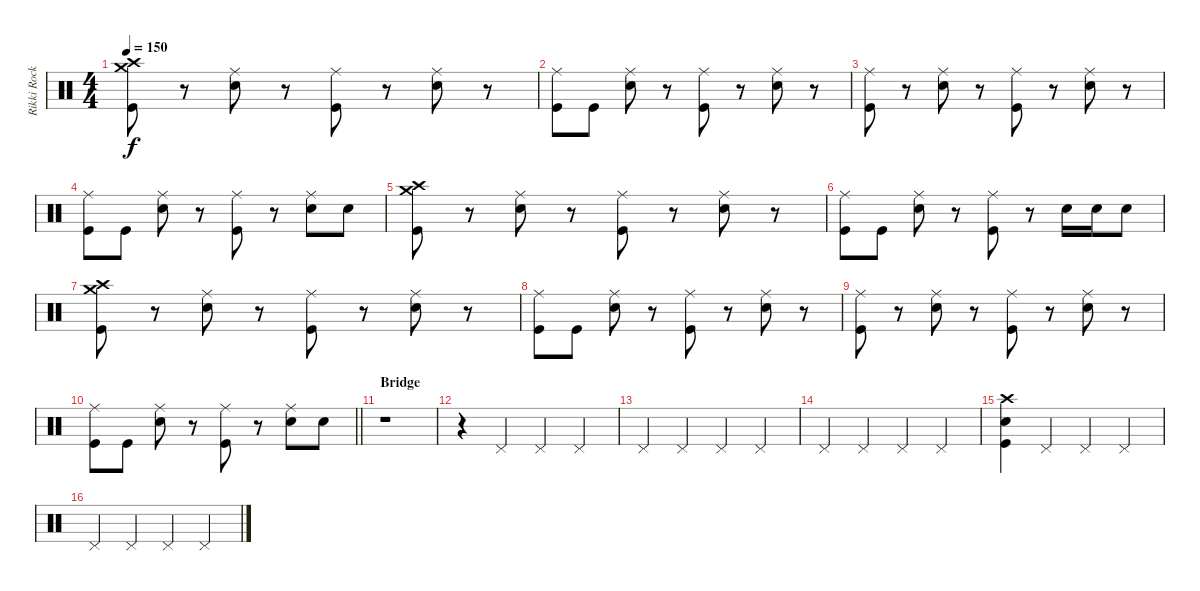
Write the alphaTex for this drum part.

\track ("Rikki Rocket" "Rikki Rock") {instrument percussion}
\staff {score}
\articulation defaults
\ts (4 4)
\tempo 150
\clef neutral
\ks c
("Crash medium (hit)" "Crash high (hit)" "Kick (hit)").8{dy f} r.8 ("Ride (middle)" "Electric Snare (hit)").8 r.8 ("Ride (middle)" "Kick (hit)").8 r.8 ("Ride (middle)" "Electric Snare (hit)").8 r.8 |
("Ride (middle)" "Kick (hit)").8 "Kick (hit)".8 ("Ride (middle)" "Electric Snare (hit)").8 r.8 ("Ride (middle)" "Kick (hit)").8 r.8 ("Ride (middle)" "Electric Snare (hit)").8 r.8 |
("Ride (middle)" "Kick (hit)").8 r.8 ("Ride (middle)" "Electric Snare (hit)").8 r.8 ("Ride (middle)" "Kick (hit)").8 r.8 ("Ride (middle)" "Electric Snare (hit)").8 r.8 |
("Ride (middle)" "Kick (hit)").8 "Kick (hit)".8 ("Ride (middle)" "Electric Snare (hit)").8 r.8 ("Ride (middle)" "Kick (hit)").8 r.8 ("Ride (middle)" "Electric Snare (hit)").8 "Electric Snare (hit)".8 |
("Crash medium (hit)" "Crash high (hit)" "Kick (hit)").8 r.8 ("Ride (middle)" "Electric Snare (hit)").8 r.8 ("Ride (middle)" "Kick (hit)").8 r.8 ("Ride (middle)" "Electric Snare (hit)").8 r.8 |
("Ride (middle)" "Kick (hit)").8 "Kick (hit)".8 ("Ride (middle)" "Electric Snare (hit)").8 r.8 ("Ride (middle)" "Kick (hit)").8 r.8 "Electric Snare (hit)".16 "Electric Snare (hit)".16 "Electric Snare (hit)".8 |
("Crash medium (hit)" "Crash high (hit)" "Kick (hit)").8 r.8 ("Ride (middle)" "Electric Snare (hit)").8 r.8 ("Ride (middle)" "Kick (hit)").8 r.8 ("Ride (middle)" "Electric Snare (hit)").8 r.8 |
("Ride (middle)" "Kick (hit)").8 "Kick (hit)".8 ("Ride (middle)" "Electric Snare (hit)").8 r.8 ("Ride (middle)" "Kick (hit)").8 r.8 ("Ride (middle)" "Electric Snare (hit)").8 r.8 |
("Ride (middle)" "Kick (hit)").8 r.8 ("Ride (middle)" "Electric Snare (hit)").8 r.8 ("Ride (middle)" "Kick (hit)").8 r.8 ("Ride (middle)" "Electric Snare (hit)").8 r.8 |
\barLineRight lightlight
("Ride (middle)" "Kick (hit)").8 "Kick (hit)".8 ("Ride (middle)" "Electric Snare (hit)").8 r.8 ("Ride (middle)" "Kick (hit)").8 r.8 ("Ride (middle)" "Electric Snare (hit)").8 "Electric Snare (hit)".8 |
\section ("" "Bridge")
r.1 |
r.4 "Pedal Hi-Hat (hit)".4 "Pedal Hi-Hat (hit)".4 "Pedal Hi-Hat (hit)".4 |
"Pedal Hi-Hat (hit)".4 "Pedal Hi-Hat (hit)".4 "Pedal Hi-Hat (hit)".4 "Pedal Hi-Hat (hit)".4 |
"Pedal Hi-Hat (hit)".4 "Pedal Hi-Hat (hit)".4 "Pedal Hi-Hat (hit)".4 "Pedal Hi-Hat (hit)".4 |
("Crash high (hit)" "Electric Snare (hit)" "Kick (hit)").4 "Pedal Hi-Hat (hit)".4 "Pedal Hi-Hat (hit)".4 "Pedal Hi-Hat (hit)".4 |
"Pedal Hi-Hat (hit)".4 "Pedal Hi-Hat (hit)".4 "Pedal Hi-Hat (hit)".4 "Pedal Hi-Hat (hit)".4
